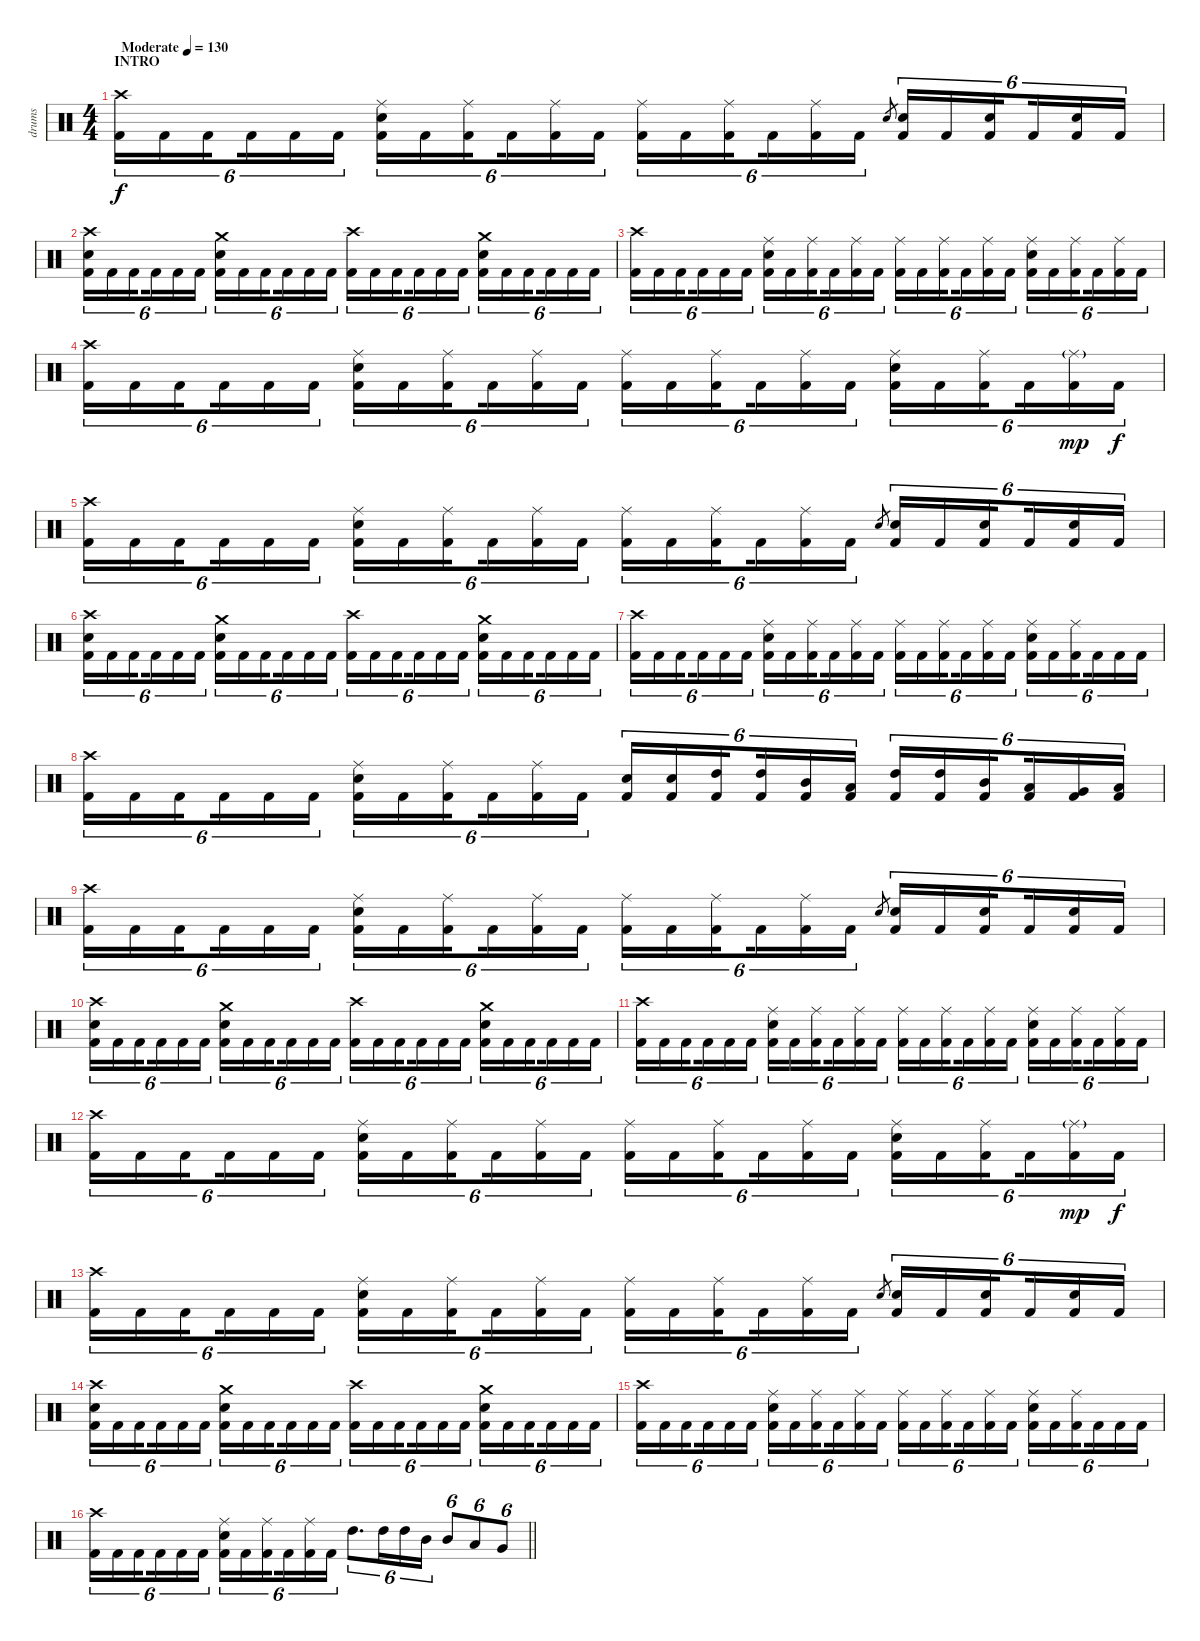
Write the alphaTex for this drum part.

\track ("drums" "drums") {instrument percussion}
\staff {score}
\articulation defaults
\ts (4 4)
\section ("" "INTRO")
\tempo (130 "Moderate")
\clef neutral
\ks c
("Crash high (hit)" "Kick (hit) 2").16{tu (6 4) dy f} "Kick (hit) 2".16{tu (6 4)} "Kick (hit) 2".16{tu (6 4) beam splitsecondary} "Kick (hit) 2".16{tu (6 4)} "Kick (hit) 2".16{tu (6 4)} "Kick (hit) 2".16{tu (6 4)} ("Ride (middle)" "Electric Snare (hit)" "Kick (hit) 2").16{tu (6 4)} "Kick (hit) 2".16{tu (6 4)} ("Ride (middle)" "Kick (hit) 2").16{tu (6 4) beam splitsecondary} "Kick (hit) 2".16{tu (6 4)} ("Ride (middle)" "Kick (hit) 2").16{tu (6 4)} "Kick (hit) 2".16{tu (6 4)} ("Ride (middle)" "Kick (hit) 2").16{tu (6 4)} "Kick (hit) 2".16{tu (6 4)} ("Ride (middle)" "Kick (hit) 2").16{tu (6 4) beam splitsecondary} "Kick (hit) 2".16{tu (6 4)} ("Ride (middle)" "Kick (hit) 2").16{tu (6 4)} "Kick (hit) 2".16{tu (6 4)} "Electric Snare (hit)".8{gr} ("Electric Snare (hit)" "Kick (hit) 2").16{tu (6 4)} "Kick (hit) 2".16{tu (6 4)} ("Electric Snare (hit)" "Kick (hit) 2").16{tu (6 4) beam splitsecondary} "Kick (hit) 2".16{tu (6 4)} ("Electric Snare (hit)" "Kick (hit) 2").16{tu (6 4)} "Kick (hit) 2".16{tu (6 4)} |
("Crash high (hit)" "Electric Snare (hit)" "Kick (hit) 2").16{tu (6 4)} "Kick (hit) 2".16{tu (6 4)} "Kick (hit) 2".16{tu (6 4) beam splitsecondary} "Kick (hit) 2".16{tu (6 4)} "Kick (hit) 2".16{tu (6 4)} "Kick (hit) 2".16{tu (6 4)} ("Crash medium (hit)" "Electric Snare (hit)" "Kick (hit) 2").16{tu (6 4)} "Kick (hit) 2".16{tu (6 4)} "Kick (hit) 2".16{tu (6 4) beam splitsecondary} "Kick (hit) 2".16{tu (6 4)} "Kick (hit) 2".16{tu (6 4)} "Kick (hit) 2".16{tu (6 4)} ("Crash high (hit)" "Kick (hit) 2").16{tu (6 4)} "Kick (hit) 2".16{tu (6 4)} "Kick (hit) 2".16{tu (6 4) beam splitsecondary} "Kick (hit) 2".16{tu (6 4)} "Kick (hit) 2".16{tu (6 4)} "Kick (hit) 2".16{tu (6 4)} ("Crash medium (hit)" "Electric Snare (hit)" "Kick (hit) 2").16{tu (6 4)} "Kick (hit) 2".16{tu (6 4)} "Kick (hit) 2".16{tu (6 4) beam splitsecondary} "Kick (hit) 2".16{tu (6 4)} "Kick (hit) 2".16{tu (6 4)} "Kick (hit) 2".16{tu (6 4)} |
("Crash high (hit)" "Kick (hit) 2").16{tu (6 4)} "Kick (hit) 2".16{tu (6 4)} "Kick (hit) 2".16{tu (6 4) beam splitsecondary} "Kick (hit) 2".16{tu (6 4)} "Kick (hit) 2".16{tu (6 4)} "Kick (hit) 2".16{tu (6 4)} ("Ride (middle)" "Electric Snare (hit)" "Kick (hit) 2").16{tu (6 4)} "Kick (hit) 2".16{tu (6 4)} ("Ride (middle)" "Kick (hit) 2").16{tu (6 4) beam splitsecondary} "Kick (hit) 2".16{tu (6 4)} ("Ride (middle)" "Kick (hit) 2").16{tu (6 4)} "Kick (hit) 2".16{tu (6 4)} ("Ride (middle)" "Kick (hit) 2").16{tu (6 4)} "Kick (hit) 2".16{tu (6 4)} ("Ride (middle)" "Kick (hit) 2").16{tu (6 4) beam splitsecondary} "Kick (hit) 2".16{tu (6 4)} ("Ride (middle)" "Kick (hit) 2").16{tu (6 4)} "Kick (hit) 2".16{tu (6 4)} ("Ride (middle)" "Electric Snare (hit)" "Kick (hit) 2").16{tu (6 4)} "Kick (hit) 2".16{tu (6 4)} ("Ride (middle)" "Kick (hit) 2").16{tu (6 4) beam splitsecondary} "Kick (hit) 2".16{tu (6 4)} ("Ride (middle)" "Kick (hit) 2").16{tu (6 4)} "Kick (hit) 2".16{tu (6 4)} |
("Crash high (hit)" "Kick (hit) 2").16{tu (6 4)} "Kick (hit) 2".16{tu (6 4)} "Kick (hit) 2".16{tu (6 4) beam splitsecondary} "Kick (hit) 2".16{tu (6 4)} "Kick (hit) 2".16{tu (6 4)} "Kick (hit) 2".16{tu (6 4)} ("Ride (middle)" "Electric Snare (hit)" "Kick (hit) 2").16{tu (6 4)} "Kick (hit) 2".16{tu (6 4)} ("Ride (middle)" "Kick (hit) 2").16{tu (6 4) beam splitsecondary} "Kick (hit) 2".16{tu (6 4)} ("Ride (middle)" "Kick (hit) 2").16{tu (6 4)} "Kick (hit) 2".16{tu (6 4)} ("Ride (middle)" "Kick (hit) 2").16{tu (6 4)} "Kick (hit) 2".16{tu (6 4)} ("Ride (middle)" "Kick (hit) 2").16{tu (6 4) beam splitsecondary} "Kick (hit) 2".16{tu (6 4)} ("Ride (middle)" "Kick (hit) 2").16{tu (6 4)} "Kick (hit) 2".16{tu (6 4)} ("Ride (middle)" "Electric Snare (hit)" "Kick (hit) 2").16{tu (6 4)} "Kick (hit) 2".16{tu (6 4)} ("Ride (middle)" "Kick (hit) 2").16{tu (6 4) beam splitsecondary} "Kick (hit) 2".16{tu (6 4)} ("Ride (middle)"{g} "Kick (hit) 2").16{tu (6 4) dy mp} "Kick (hit) 2".16{tu (6 4) dy f} |
("Crash high (hit)" "Kick (hit) 2").16{tu (6 4)} "Kick (hit) 2".16{tu (6 4)} "Kick (hit) 2".16{tu (6 4) beam splitsecondary} "Kick (hit) 2".16{tu (6 4)} "Kick (hit) 2".16{tu (6 4)} "Kick (hit) 2".16{tu (6 4)} ("Ride (middle)" "Electric Snare (hit)" "Kick (hit) 2").16{tu (6 4)} "Kick (hit) 2".16{tu (6 4)} ("Ride (middle)" "Kick (hit) 2").16{tu (6 4) beam splitsecondary} "Kick (hit) 2".16{tu (6 4)} ("Ride (middle)" "Kick (hit) 2").16{tu (6 4)} "Kick (hit) 2".16{tu (6 4)} ("Ride (middle)" "Kick (hit) 2").16{tu (6 4)} "Kick (hit) 2".16{tu (6 4)} ("Ride (middle)" "Kick (hit) 2").16{tu (6 4) beam splitsecondary} "Kick (hit) 2".16{tu (6 4)} ("Ride (middle)" "Kick (hit) 2").16{tu (6 4)} "Kick (hit) 2".16{tu (6 4)} "Electric Snare (hit)".8{gr} ("Electric Snare (hit)" "Kick (hit) 2").16{tu (6 4)} "Kick (hit) 2".16{tu (6 4)} ("Electric Snare (hit)" "Kick (hit) 2").16{tu (6 4) beam splitsecondary} "Kick (hit) 2".16{tu (6 4)} ("Electric Snare (hit)" "Kick (hit) 2").16{tu (6 4)} "Kick (hit) 2".16{tu (6 4)} |
("Crash high (hit)" "Electric Snare (hit)" "Kick (hit) 2").16{tu (6 4)} "Kick (hit) 2".16{tu (6 4)} "Kick (hit) 2".16{tu (6 4) beam splitsecondary} "Kick (hit) 2".16{tu (6 4)} "Kick (hit) 2".16{tu (6 4)} "Kick (hit) 2".16{tu (6 4)} ("Crash medium (hit)" "Electric Snare (hit)" "Kick (hit) 2").16{tu (6 4)} "Kick (hit) 2".16{tu (6 4)} "Kick (hit) 2".16{tu (6 4) beam splitsecondary} "Kick (hit) 2".16{tu (6 4)} "Kick (hit) 2".16{tu (6 4)} "Kick (hit) 2".16{tu (6 4)} ("Crash high (hit)" "Kick (hit) 2").16{tu (6 4)} "Kick (hit) 2".16{tu (6 4)} "Kick (hit) 2".16{tu (6 4) beam splitsecondary} "Kick (hit) 2".16{tu (6 4)} "Kick (hit) 2".16{tu (6 4)} "Kick (hit) 2".16{tu (6 4)} ("Crash medium (hit)" "Electric Snare (hit)" "Kick (hit) 2").16{tu (6 4)} "Kick (hit) 2".16{tu (6 4)} "Kick (hit) 2".16{tu (6 4) beam splitsecondary} "Kick (hit) 2".16{tu (6 4)} "Kick (hit) 2".16{tu (6 4)} "Kick (hit) 2".16{tu (6 4)} |
("Crash high (hit)" "Kick (hit) 2").16{tu (6 4)} "Kick (hit) 2".16{tu (6 4)} "Kick (hit) 2".16{tu (6 4) beam splitsecondary} "Kick (hit) 2".16{tu (6 4)} "Kick (hit) 2".16{tu (6 4)} "Kick (hit) 2".16{tu (6 4)} ("Ride (middle)" "Electric Snare (hit)" "Kick (hit) 2").16{tu (6 4)} "Kick (hit) 2".16{tu (6 4)} ("Ride (middle)" "Kick (hit) 2").16{tu (6 4) beam splitsecondary} "Kick (hit) 2".16{tu (6 4)} ("Ride (middle)" "Kick (hit) 2").16{tu (6 4)} "Kick (hit) 2".16{tu (6 4)} ("Ride (middle)" "Kick (hit) 2").16{tu (6 4)} "Kick (hit) 2".16{tu (6 4)} ("Ride (middle)" "Kick (hit) 2").16{tu (6 4) beam splitsecondary} "Kick (hit) 2".16{tu (6 4)} ("Ride (middle)" "Kick (hit) 2").16{tu (6 4)} "Kick (hit) 2".16{tu (6 4)} ("Ride (middle)" "Electric Snare (hit)" "Kick (hit) 2").16{tu (6 4)} "Kick (hit) 2".16{tu (6 4)} ("Ride (middle)" "Kick (hit) 2").16{tu (6 4) beam splitsecondary} "Kick (hit) 2".16{tu (6 4)} "Kick (hit) 2".16{tu (6 4)} "Kick (hit) 2".16{tu (6 4)} |
("Crash high (hit)" "Kick (hit) 2").16{tu (6 4)} "Kick (hit) 2".16{tu (6 4)} "Kick (hit) 2".16{tu (6 4) beam splitsecondary} "Kick (hit) 2".16{tu (6 4)} "Kick (hit) 2".16{tu (6 4)} "Kick (hit) 2".16{tu (6 4)} ("Ride (middle)" "Electric Snare (hit)" "Kick (hit) 2").16{tu (6 4)} "Kick (hit) 2".16{tu (6 4)} ("Ride (middle)" "Kick (hit) 2").16{tu (6 4) beam splitsecondary} "Kick (hit) 2".16{tu (6 4)} ("Ride (middle)" "Kick (hit) 2").16{tu (6 4)} "Kick (hit) 2".16{tu (6 4)} ("Electric Snare (hit)" "Kick (hit) 2").16{tu (6 4)} ("Electric Snare (hit)" "Kick (hit) 2").16{tu (6 4)} ("High Tom (hit)" "Kick (hit) 2").16{tu (6 4) beam splitsecondary} ("High Tom (hit)" "Kick (hit) 2").16{tu (6 4)} ("Mid Tom (hit)" "Kick (hit) 2").16{tu (6 4)} ("Low Tom (hit)" "Kick (hit) 2").16{tu (6 4)} ("High Tom (hit)" "Kick (hit) 2").16{tu (6 4)} ("High Tom (hit)" "Kick (hit) 2").16{tu (6 4)} ("Mid Tom (hit)" "Kick (hit) 2").16{tu (6 4) beam splitsecondary} ("Low Tom (hit)" "Kick (hit) 2").16{tu (6 4)} ("Very Low Tom (hit)" "Kick (hit) 2").16{tu (6 4)} ("Low Floor Tom (hit)" "Kick (hit) 2").16{tu (6 4)} |
("Crash high (hit)" "Kick (hit) 2").16{tu (6 4)} "Kick (hit) 2".16{tu (6 4)} "Kick (hit) 2".16{tu (6 4) beam splitsecondary} "Kick (hit) 2".16{tu (6 4)} "Kick (hit) 2".16{tu (6 4)} "Kick (hit) 2".16{tu (6 4)} ("Ride (middle)" "Electric Snare (hit)" "Kick (hit) 2").16{tu (6 4)} "Kick (hit) 2".16{tu (6 4)} ("Ride (middle)" "Kick (hit) 2").16{tu (6 4) beam splitsecondary} "Kick (hit) 2".16{tu (6 4)} ("Ride (middle)" "Kick (hit) 2").16{tu (6 4)} "Kick (hit) 2".16{tu (6 4)} ("Ride (middle)" "Kick (hit) 2").16{tu (6 4)} "Kick (hit) 2".16{tu (6 4)} ("Ride (middle)" "Kick (hit) 2").16{tu (6 4) beam splitsecondary} "Kick (hit) 2".16{tu (6 4)} ("Ride (middle)" "Kick (hit) 2").16{tu (6 4)} "Kick (hit) 2".16{tu (6 4)} "Electric Snare (hit)".8{gr} ("Electric Snare (hit)" "Kick (hit) 2").16{tu (6 4)} "Kick (hit) 2".16{tu (6 4)} ("Electric Snare (hit)" "Kick (hit) 2").16{tu (6 4) beam splitsecondary} "Kick (hit) 2".16{tu (6 4)} ("Electric Snare (hit)" "Kick (hit) 2").16{tu (6 4)} "Kick (hit) 2".16{tu (6 4)} |
("Crash high (hit)" "Electric Snare (hit)" "Kick (hit) 2").16{tu (6 4)} "Kick (hit) 2".16{tu (6 4)} "Kick (hit) 2".16{tu (6 4) beam splitsecondary} "Kick (hit) 2".16{tu (6 4)} "Kick (hit) 2".16{tu (6 4)} "Kick (hit) 2".16{tu (6 4)} ("Crash medium (hit)" "Electric Snare (hit)" "Kick (hit) 2").16{tu (6 4)} "Kick (hit) 2".16{tu (6 4)} "Kick (hit) 2".16{tu (6 4) beam splitsecondary} "Kick (hit) 2".16{tu (6 4)} "Kick (hit) 2".16{tu (6 4)} "Kick (hit) 2".16{tu (6 4)} ("Crash high (hit)" "Kick (hit) 2").16{tu (6 4)} "Kick (hit) 2".16{tu (6 4)} "Kick (hit) 2".16{tu (6 4) beam splitsecondary} "Kick (hit) 2".16{tu (6 4)} "Kick (hit) 2".16{tu (6 4)} "Kick (hit) 2".16{tu (6 4)} ("Crash medium (hit)" "Electric Snare (hit)" "Kick (hit) 2").16{tu (6 4)} "Kick (hit) 2".16{tu (6 4)} "Kick (hit) 2".16{tu (6 4) beam splitsecondary} "Kick (hit) 2".16{tu (6 4)} "Kick (hit) 2".16{tu (6 4)} "Kick (hit) 2".16{tu (6 4)} |
("Crash high (hit)" "Kick (hit) 2").16{tu (6 4)} "Kick (hit) 2".16{tu (6 4)} "Kick (hit) 2".16{tu (6 4) beam splitsecondary} "Kick (hit) 2".16{tu (6 4)} "Kick (hit) 2".16{tu (6 4)} "Kick (hit) 2".16{tu (6 4)} ("Ride (middle)" "Electric Snare (hit)" "Kick (hit) 2").16{tu (6 4)} "Kick (hit) 2".16{tu (6 4)} ("Ride (middle)" "Kick (hit) 2").16{tu (6 4) beam splitsecondary} "Kick (hit) 2".16{tu (6 4)} ("Ride (middle)" "Kick (hit) 2").16{tu (6 4)} "Kick (hit) 2".16{tu (6 4)} ("Ride (middle)" "Kick (hit) 2").16{tu (6 4)} "Kick (hit) 2".16{tu (6 4)} ("Ride (middle)" "Kick (hit) 2").16{tu (6 4) beam splitsecondary} "Kick (hit) 2".16{tu (6 4)} ("Ride (middle)" "Kick (hit) 2").16{tu (6 4)} "Kick (hit) 2".16{tu (6 4)} ("Ride (middle)" "Electric Snare (hit)" "Kick (hit) 2").16{tu (6 4)} "Kick (hit) 2".16{tu (6 4)} ("Ride (middle)" "Kick (hit) 2").16{tu (6 4) beam splitsecondary} "Kick (hit) 2".16{tu (6 4)} ("Ride (middle)" "Kick (hit) 2").16{tu (6 4)} "Kick (hit) 2".16{tu (6 4)} |
("Crash high (hit)" "Kick (hit) 2").16{tu (6 4)} "Kick (hit) 2".16{tu (6 4)} "Kick (hit) 2".16{tu (6 4) beam splitsecondary} "Kick (hit) 2".16{tu (6 4)} "Kick (hit) 2".16{tu (6 4)} "Kick (hit) 2".16{tu (6 4)} ("Ride (middle)" "Electric Snare (hit)" "Kick (hit) 2").16{tu (6 4)} "Kick (hit) 2".16{tu (6 4)} ("Ride (middle)" "Kick (hit) 2").16{tu (6 4) beam splitsecondary} "Kick (hit) 2".16{tu (6 4)} ("Ride (middle)" "Kick (hit) 2").16{tu (6 4)} "Kick (hit) 2".16{tu (6 4)} ("Ride (middle)" "Kick (hit) 2").16{tu (6 4)} "Kick (hit) 2".16{tu (6 4)} ("Ride (middle)" "Kick (hit) 2").16{tu (6 4) beam splitsecondary} "Kick (hit) 2".16{tu (6 4)} ("Ride (middle)" "Kick (hit) 2").16{tu (6 4)} "Kick (hit) 2".16{tu (6 4)} ("Ride (middle)" "Electric Snare (hit)" "Kick (hit) 2").16{tu (6 4)} "Kick (hit) 2".16{tu (6 4)} ("Ride (middle)" "Kick (hit) 2").16{tu (6 4) beam splitsecondary} "Kick (hit) 2".16{tu (6 4)} ("Ride (middle)"{g} "Kick (hit) 2").16{tu (6 4) dy mp} "Kick (hit) 2".16{tu (6 4) dy f} |
("Crash high (hit)" "Kick (hit) 2").16{tu (6 4)} "Kick (hit) 2".16{tu (6 4)} "Kick (hit) 2".16{tu (6 4) beam splitsecondary} "Kick (hit) 2".16{tu (6 4)} "Kick (hit) 2".16{tu (6 4)} "Kick (hit) 2".16{tu (6 4)} ("Ride (middle)" "Electric Snare (hit)" "Kick (hit) 2").16{tu (6 4)} "Kick (hit) 2".16{tu (6 4)} ("Ride (middle)" "Kick (hit) 2").16{tu (6 4) beam splitsecondary} "Kick (hit) 2".16{tu (6 4)} ("Ride (middle)" "Kick (hit) 2").16{tu (6 4)} "Kick (hit) 2".16{tu (6 4)} ("Ride (middle)" "Kick (hit) 2").16{tu (6 4)} "Kick (hit) 2".16{tu (6 4)} ("Ride (middle)" "Kick (hit) 2").16{tu (6 4) beam splitsecondary} "Kick (hit) 2".16{tu (6 4)} ("Ride (middle)" "Kick (hit) 2").16{tu (6 4)} "Kick (hit) 2".16{tu (6 4)} "Electric Snare (hit)".8{gr} ("Electric Snare (hit)" "Kick (hit) 2").16{tu (6 4)} "Kick (hit) 2".16{tu (6 4)} ("Electric Snare (hit)" "Kick (hit) 2").16{tu (6 4) beam splitsecondary} "Kick (hit) 2".16{tu (6 4)} ("Electric Snare (hit)" "Kick (hit) 2").16{tu (6 4)} "Kick (hit) 2".16{tu (6 4)} |
("Crash high (hit)" "Electric Snare (hit)" "Kick (hit) 2").16{tu (6 4)} "Kick (hit) 2".16{tu (6 4)} "Kick (hit) 2".16{tu (6 4) beam splitsecondary} "Kick (hit) 2".16{tu (6 4)} "Kick (hit) 2".16{tu (6 4)} "Kick (hit) 2".16{tu (6 4)} ("Crash medium (hit)" "Electric Snare (hit)" "Kick (hit) 2").16{tu (6 4)} "Kick (hit) 2".16{tu (6 4)} "Kick (hit) 2".16{tu (6 4) beam splitsecondary} "Kick (hit) 2".16{tu (6 4)} "Kick (hit) 2".16{tu (6 4)} "Kick (hit) 2".16{tu (6 4)} ("Crash high (hit)" "Kick (hit) 2").16{tu (6 4)} "Kick (hit) 2".16{tu (6 4)} "Kick (hit) 2".16{tu (6 4) beam splitsecondary} "Kick (hit) 2".16{tu (6 4)} "Kick (hit) 2".16{tu (6 4)} "Kick (hit) 2".16{tu (6 4)} ("Crash medium (hit)" "Electric Snare (hit)" "Kick (hit) 2").16{tu (6 4)} "Kick (hit) 2".16{tu (6 4)} "Kick (hit) 2".16{tu (6 4) beam splitsecondary} "Kick (hit) 2".16{tu (6 4)} "Kick (hit) 2".16{tu (6 4)} "Kick (hit) 2".16{tu (6 4)} |
("Crash high (hit)" "Kick (hit) 2").16{tu (6 4)} "Kick (hit) 2".16{tu (6 4)} "Kick (hit) 2".16{tu (6 4) beam splitsecondary} "Kick (hit) 2".16{tu (6 4)} "Kick (hit) 2".16{tu (6 4)} "Kick (hit) 2".16{tu (6 4)} ("Ride (middle)" "Electric Snare (hit)" "Kick (hit) 2").16{tu (6 4)} "Kick (hit) 2".16{tu (6 4)} ("Ride (middle)" "Kick (hit) 2").16{tu (6 4) beam splitsecondary} "Kick (hit) 2".16{tu (6 4)} ("Ride (middle)" "Kick (hit) 2").16{tu (6 4)} "Kick (hit) 2".16{tu (6 4)} ("Ride (middle)" "Kick (hit) 2").16{tu (6 4)} "Kick (hit) 2".16{tu (6 4)} ("Ride (middle)" "Kick (hit) 2").16{tu (6 4) beam splitsecondary} "Kick (hit) 2".16{tu (6 4)} ("Ride (middle)" "Kick (hit) 2").16{tu (6 4)} "Kick (hit) 2".16{tu (6 4)} ("Ride (middle)" "Electric Snare (hit)" "Kick (hit) 2").16{tu (6 4)} "Kick (hit) 2".16{tu (6 4)} ("Ride (middle)" "Kick (hit) 2").16{tu (6 4) beam splitsecondary} "Kick (hit) 2".16{tu (6 4)} "Kick (hit) 2".16{tu (6 4)} "Kick (hit) 2".16{tu (6 4)} |
\barLineRight lightlight
("Crash high (hit)" "Kick (hit) 2").16{tu (6 4)} "Kick (hit) 2".16{tu (6 4)} "Kick (hit) 2".16{tu (6 4) beam splitsecondary} "Kick (hit) 2".16{tu (6 4)} "Kick (hit) 2".16{tu (6 4)} "Kick (hit) 2".16{tu (6 4)} ("Ride (middle)" "Electric Snare (hit)" "Kick (hit) 2").16{tu (6 4)} "Kick (hit) 2".16{tu (6 4)} ("Ride (middle)" "Kick (hit) 2").16{tu (6 4) beam splitsecondary} "Kick (hit) 2".16{tu (6 4)} ("Ride (middle)" "Kick (hit) 2").16{tu (6 4)} "Kick (hit) 2".16{tu (6 4)} "High Tom (hit)".8{d tu (6 4)} "High Tom (hit)".16{tu (6 4)} "High Tom (hit)".16{tu (6 4)} "Mid Tom (hit)".16{tu (6 4)} "Mid Tom (hit)".8{tu (6 4)} "Low Tom (hit)".8{tu (6 4)} "Very Low Tom (hit)".8{tu (6 4)}
